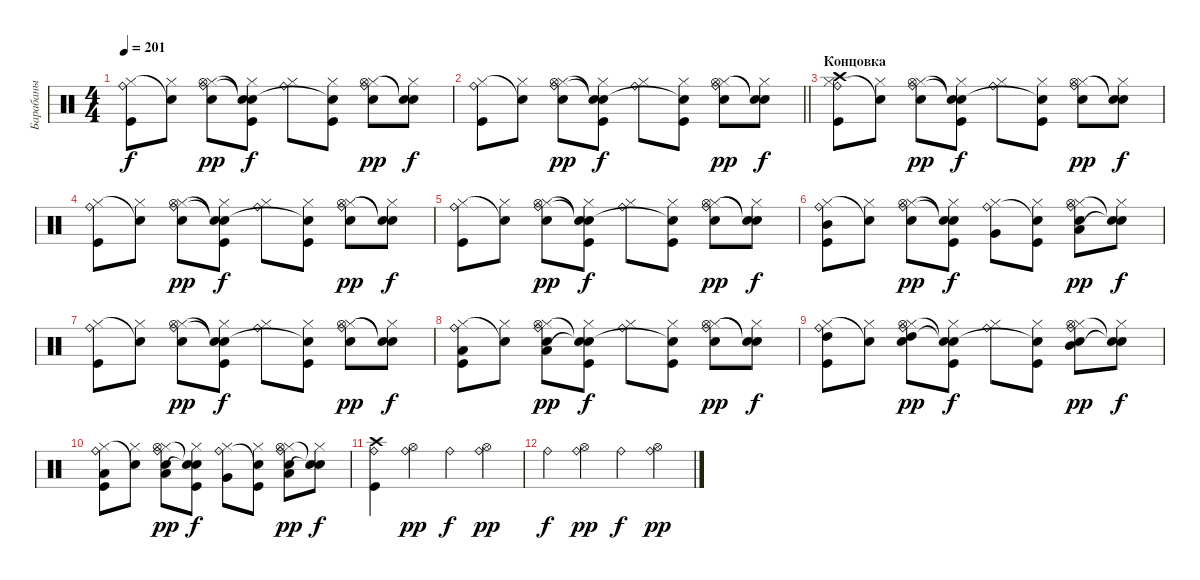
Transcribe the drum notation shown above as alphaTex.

\track ("Барабаны" "Барабаны") {instrument percussion}
\staff {score}
\articulation defaults
\ts (4 4)
\tempo 201
\clef neutral
\ks c
("Kick (hit)" "Hi-Hat (closed)" "Ride (bell)").8{dy f} ("Hi-Hat (closed)" "Snare (hit)"{t}).8 ("Snare (hit) 2" "Hi-Hat (closed)" "Hi-Hat (open)" "Ride (bell)").8{dy pp} ("Kick (hit)" "Hi-Hat (closed)" "Snare (hit)"{t} "Snare (hit)"{t}).8{dy f} ("Hi-Hat (closed)" "Ride (bell)").8 ("Kick (hit)" "Hi-Hat (closed)" "Snare (hit)"{t}).8 ("Snare (hit) 2" "Hi-Hat (closed)" "Hi-Hat (open)" "Ride (bell)").8{dy pp} ("Hi-Hat (closed)" "Snare (hit)"{t} "Snare (hit)"{t}).8{dy f} |
\barLineRight lightlight
("Kick (hit)" "Hi-Hat (closed)" "Ride (bell)").8 ("Hi-Hat (closed)" "Snare (hit)"{t}).8 ("Snare (hit) 2" "Hi-Hat (closed)" "Hi-Hat (open)" "Ride (bell)").8{dy pp} ("Kick (hit)" "Hi-Hat (closed)" "Snare (hit)"{t} "Snare (hit)"{t}).8{dy f} ("Hi-Hat (closed)" "Ride (bell)").8 ("Kick (hit)" "Hi-Hat (closed)" "Snare (hit)"{t}).8 ("Snare (hit) 2" "Hi-Hat (closed)" "Hi-Hat (open)" "Ride (bell)").8{dy pp} ("Hi-Hat (closed)" "Snare (hit)"{t} "Snare (hit)"{t}).8{dy f} |
\section ("" "Концовка")
("Kick (hit)" "Hi-Hat (closed)" "Crash high (hit)" "Ride (bell)").8 ("Hi-Hat (closed)" "Snare (hit)"{t}).8 ("Snare (hit) 2" "Hi-Hat (closed)" "Hi-Hat (open)" "Ride (bell)").8{dy pp} ("Kick (hit)" "Hi-Hat (closed)" "Snare (hit)"{t} "Snare (hit)"{t}).8{dy f} ("Hi-Hat (closed)" "Ride (bell)").8 ("Kick (hit)" "Hi-Hat (closed)" "Snare (hit)"{t}).8 ("Snare (hit) 2" "Hi-Hat (closed)" "Hi-Hat (open)" "Ride (bell)").8{dy pp} ("Hi-Hat (closed)" "Snare (hit)"{t} "Snare (hit)"{t}).8{dy f} |
("Kick (hit)" "Hi-Hat (closed)" "Ride (bell)").8 ("Hi-Hat (closed)" "Snare (hit)"{t}).8 ("Snare (hit) 2" "Hi-Hat (closed)" "Hi-Hat (open)" "Ride (bell)").8{dy pp} ("Kick (hit)" "Hi-Hat (closed)" "Snare (hit)"{t} "Snare (hit)"{t}).8{dy f} ("Hi-Hat (closed)" "Ride (bell)").8 ("Kick (hit)" "Hi-Hat (closed)" "Snare (hit)"{t}).8 ("Snare (hit) 2" "Hi-Hat (closed)" "Hi-Hat (open)" "Ride (bell)").8{dy pp} ("Hi-Hat (closed)" "Snare (hit)"{t} "Snare (hit)"{t}).8{dy f} |
("Kick (hit)" "Hi-Hat (closed)" "Ride (bell)").8 ("Hi-Hat (closed)" "Snare (hit)"{t}).8 ("Snare (hit) 2" "Hi-Hat (closed)" "Hi-Hat (open)" "Ride (bell)").8{dy pp} ("Kick (hit)" "Hi-Hat (closed)" "Snare (hit)"{t} "Snare (hit)"{t}).8{dy f} ("Hi-Hat (closed)" "Ride (bell)").8 ("Kick (hit)" "Hi-Hat (closed)" "Snare (hit)"{t}).8 ("Snare (hit) 2" "Hi-Hat (closed)" "Hi-Hat (open)" "Ride (bell)").8{dy pp} ("Hi-Hat (closed)" "Snare (hit)"{t} "Snare (hit)"{t}).8{dy f} |
("Kick (hit)" "Hi-Hat (closed)" "Mid Tom (hit)" "Ride (bell)").8 ("Hi-Hat (closed)" "Snare (hit)"{t}).8 ("Snare (hit) 2" "Hi-Hat (closed)" "Hi-Hat (open)" "Ride (bell)").8{dy pp} ("Kick (hit)" "Hi-Hat (closed)" "Snare (hit)"{t} "Snare (hit)"{t}).8{dy f} ("Hi-Hat (closed)" "Very Low Tom (hit)" "Ride (bell)").8 ("Kick (hit)" "Hi-Hat (closed)" "Snare (hit)"{t}).8 ("Snare (hit) 2" "Hi-Hat (closed)" "Low Floor Tom (hit)" "Hi-Hat (open)" "Ride (bell)").8{dy pp} ("Hi-Hat (closed)" "Snare (hit)"{t} "Snare (hit)"{t}).8{dy f} |
("Kick (hit)" "Hi-Hat (closed)" "Ride (bell)").8 ("Hi-Hat (closed)" "Snare (hit)"{t}).8 ("Snare (hit) 2" "Hi-Hat (closed)" "Hi-Hat (open)" "Ride (bell)").8{dy pp} ("Kick (hit)" "Hi-Hat (closed)" "Snare (hit)"{t} "Snare (hit)"{t}).8{dy f} ("Hi-Hat (closed)" "Ride (bell)").8 ("Kick (hit)" "Hi-Hat (closed)" "Snare (hit)"{t}).8 ("Snare (hit) 2" "Hi-Hat (closed)" "Hi-Hat (open)" "Ride (bell)").8{dy pp} ("Hi-Hat (closed)" "Snare (hit)"{t} "Snare (hit)"{t}).8{dy f} |
("Kick (hit)" "Hi-Hat (closed)" "Low Floor Tom (hit)" "Ride (bell)").8 ("Hi-Hat (closed)" "Snare (hit)"{t}).8 ("Snare (hit) 2" "Hi-Hat (closed)" "Low Floor Tom (hit)" "Hi-Hat (open)" "Ride (bell)").8{dy pp} ("Kick (hit)" "Hi-Hat (closed)" "Snare (hit)"{t} "Snare (hit)"{t}).8{dy f} ("Hi-Hat (closed)" "Ride (bell)").8 ("Kick (hit)" "Hi-Hat (closed)" "Snare (hit)"{t}).8 ("Snare (hit) 2" "Hi-Hat (closed)" "Hi-Hat (open)" "Ride (bell)").8{dy pp} ("Hi-Hat (closed)" "Snare (hit)"{t} "Snare (hit)"{t}).8{dy f} |
("Kick (hit)" "Hi-Hat (closed)" "High Tom (hit)" "Ride (bell)").8 ("Hi-Hat (closed)" "Snare (hit)"{t}).8 ("Snare (hit) 2" "Hi-Hat (closed)" "High Tom (hit)" "Hi-Hat (open)" "Ride (bell)").8{dy pp} ("Kick (hit)" "Hi-Hat (closed)" "Snare (hit)"{t} "Snare (hit)"{t}).8{dy f} ("Hi-Hat (closed)" "Ride (bell)").8 ("Kick (hit)" "Hi-Hat (closed)" "Snare (hit)"{t}).8 ("Snare (hit) 2" "Hi-Hat (closed)" "Mid Tom (hit)" "Hi-Hat (open)" "Ride (bell)").8{dy pp} ("Hi-Hat (closed)" "Snare (hit)"{t} "Snare (hit)"{t}).8{dy f} |
("Kick (hit)" "Hi-Hat (closed)" "Low Tom (hit)" "Ride (bell)").8 ("Hi-Hat (closed)" "Snare (hit)"{t}).8 ("Snare (hit) 2" "Hi-Hat (closed)" "Low Tom (hit)" "Hi-Hat (open)" "Ride (bell)").8{dy pp} ("Kick (hit)" "Hi-Hat (closed)" "Snare (hit)"{t} "Snare (hit)"{t}).8{dy f} ("Hi-Hat (closed)" "Very Low Tom (hit)" "Ride (bell)").8 ("Kick (hit)" "Hi-Hat (closed)" "Snare (hit)"{t}).8 ("Snare (hit) 2" "Hi-Hat (closed)" "Low Floor Tom (hit)" "Hi-Hat (open)" "Ride (bell)").8{dy pp} ("Hi-Hat (closed)" "Snare (hit)"{t} "Snare (hit)"{t}).8{dy f} |
("Kick (hit)" "Crash high (hit)" "Ride (bell)").4 ("Hi-Hat (open)" "Ride (bell)").4{dy pp} "Ride (bell)".4{dy f} ("Hi-Hat (open)" "Ride (bell)").4{dy pp} |
"Ride (bell)".4{dy f} ("Hi-Hat (open)" "Ride (bell)").4{dy pp} "Ride (bell)".4{dy f} ("Hi-Hat (open)" "Ride (bell)").4{dy pp}
